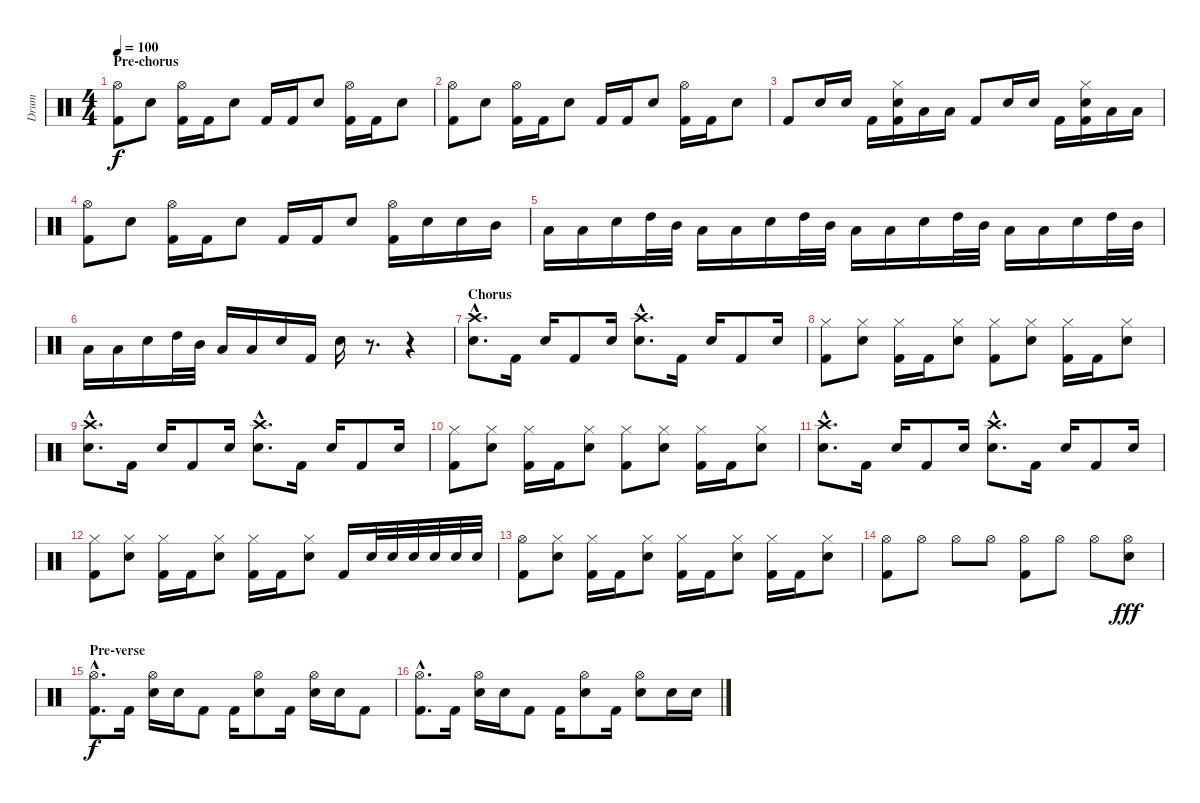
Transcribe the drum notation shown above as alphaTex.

\track ("Drum" "Drum") {instrument percussion}
\staff {score}
\articulation defaults
\ts (4 4)
\section ("" "Pre-chorus")
\tempo 100
\clef neutral
\ks c
("Hi-Hat (open)" "Kick (hit) 2").8{dy f} "Electric Snare (hit)".8 ("Hi-Hat (open)" "Kick (hit) 2").16 "Kick (hit) 2".16 "Electric Snare (hit)".8 "Kick (hit) 2".16 "Kick (hit) 2".16 "Electric Snare (hit)".8 ("Hi-Hat (open)" "Kick (hit) 2").16 "Kick (hit) 2".16 "Electric Snare (hit)".8 |
("Hi-Hat (open)" "Kick (hit) 2").8 "Electric Snare (hit)".8 ("Hi-Hat (open)" "Kick (hit) 2").16 "Kick (hit) 2".16 "Electric Snare (hit)".8 "Kick (hit) 2".16 "Kick (hit) 2".16 "Electric Snare (hit)".8 ("Hi-Hat (open)" "Kick (hit) 2").16 "Kick (hit) 2".16 "Electric Snare (hit)".8 |
"Kick (hit) 2".8 "Electric Snare (hit)".16 "Electric Snare (hit)".16 "Kick (hit) 2".16 ("Hi-Hat (closed)" "Electric Snare (hit)" "Kick (hit) 2").16 "Low Tom (hit)".16 "Low Tom (hit)".16 "Kick (hit) 2".8 "Electric Snare (hit)".16 "Electric Snare (hit)".16 "Kick (hit) 2".16 ("Hi-Hat (closed)" "Electric Snare (hit)" "Kick (hit) 2").16 "Low Tom (hit)".16 "Low Tom (hit)".16 |
("Hi-Hat (open)" "Kick (hit) 2").8 "Electric Snare (hit)".8 ("Hi-Hat (open)" "Kick (hit) 2").16 "Kick (hit) 2".16 "Electric Snare (hit)".8 "Kick (hit) 2".16 "Kick (hit) 2".16 "Electric Snare (hit)".8 ("Hi-Hat (open)" "Kick (hit) 2").16 "Electric Snare (hit)".16 "Electric Snare (hit)".16 "Mid Tom (hit)".16 |
"Low Tom (hit)".16 "Low Tom (hit)".16 "Electric Snare (hit)".16 "High Tom (hit)".32 "Mid Tom (hit)".32 "Low Tom (hit)".16 "Low Tom (hit)".16 "Electric Snare (hit)".16 "High Tom (hit)".32 "Mid Tom (hit)".32 "Low Tom (hit)".16 "Low Tom (hit)".16 "Electric Snare (hit)".16 "High Tom (hit)".32 "Mid Tom (hit)".32 "Low Tom (hit)".16 "Low Tom (hit)".16 "Electric Snare (hit)".16 "High Tom (hit)".32 "Mid Tom (hit)".32 |
"Low Tom (hit)".16 "Low Tom (hit)".16 "Electric Snare (hit)".16 "High Tom (hit)".32 "Mid Tom (hit)".32 "Low Tom (hit)".16 "Low Tom (hit)".16 "Electric Snare (hit)".16 "Kick (hit) 2".16 "Electric Snare (hit)".16 r.8{d} r.4 |
\section ("" "Chorus")
("Crash high (hit)"{hac} "Electric Snare (hit)"{hac}).8{d} "Kick (hit) 2".16 "Electric Snare (hit)".16 "Kick (hit) 2".8 "Electric Snare (hit)".16 ("Crash high (hit)"{hac} "Electric Snare (hit)"{hac}).8{d} "Kick (hit) 2".16 "Electric Snare (hit)".16 "Kick (hit) 2".8 "Electric Snare (hit)".16 |
("Hi-Hat (closed)" "Kick (hit) 2").8 ("Hi-Hat (closed)" "Electric Snare (hit)").8 ("Hi-Hat (closed)" "Kick (hit) 2").16 "Kick (hit) 2".16 ("Hi-Hat (closed)" "Electric Snare (hit)").8 ("Hi-Hat (closed)" "Kick (hit) 2").8 ("Hi-Hat (closed)" "Electric Snare (hit)").8 ("Hi-Hat (closed)" "Kick (hit) 2").16 "Kick (hit) 2".16 ("Hi-Hat (closed)" "Electric Snare (hit)").8 |
("Crash high (hit)"{hac} "Electric Snare (hit)"{hac}).8{d} "Kick (hit) 2".16 "Electric Snare (hit)".16 "Kick (hit) 2".8 "Electric Snare (hit)".16 ("Crash high (hit)"{hac} "Electric Snare (hit)"{hac}).8{d} "Kick (hit) 2".16 "Electric Snare (hit)".16 "Kick (hit) 2".8 "Electric Snare (hit)".16 |
("Hi-Hat (closed)" "Kick (hit) 2").8 ("Hi-Hat (closed)" "Electric Snare (hit)").8 ("Hi-Hat (closed)" "Kick (hit) 2").16 "Kick (hit) 2".16 ("Hi-Hat (closed)" "Electric Snare (hit)").8 ("Hi-Hat (closed)" "Kick (hit) 2").8 ("Hi-Hat (closed)" "Electric Snare (hit)").8 ("Hi-Hat (closed)" "Kick (hit) 2").16 "Kick (hit) 2".16 ("Hi-Hat (closed)" "Electric Snare (hit)").8 |
("Crash high (hit)"{hac} "Electric Snare (hit)"{hac}).8{d} "Kick (hit) 2".16 "Electric Snare (hit)".16 "Kick (hit) 2".8 "Electric Snare (hit)".16 ("Crash high (hit)"{hac} "Electric Snare (hit)"{hac}).8{d} "Kick (hit) 2".16 "Electric Snare (hit)".16 "Kick (hit) 2".8 "Electric Snare (hit)".16 |
("Hi-Hat (closed)" "Kick (hit) 2").8 ("Hi-Hat (closed)" "Electric Snare (hit)").8 ("Hi-Hat (closed)" "Kick (hit) 2").16 "Kick (hit) 2".16 ("Hi-Hat (closed)" "Electric Snare (hit)").8 ("Hi-Hat (closed)" "Kick (hit) 2").16 "Kick (hit) 2".16 ("Hi-Hat (closed)" "Electric Snare (hit)").8 "Kick (hit) 2".16 "Electric Snare (hit)".32 "Electric Snare (hit)".32 "Electric Snare (hit)".32 "Electric Snare (hit)".32 "Electric Snare (hit)".32 "Electric Snare (hit)".32 |
("Hi-Hat (open)" "Kick (hit) 2").8 ("Hi-Hat (closed)" "Electric Snare (hit)").8 ("Hi-Hat (closed)" "Kick (hit) 2").16 "Kick (hit) 2".16 ("Hi-Hat (closed)" "Electric Snare (hit)").8 ("Hi-Hat (closed)" "Kick (hit) 2").16 "Kick (hit) 2".16 ("Hi-Hat (closed)" "Electric Snare (hit)").8 ("Hi-Hat (closed)" "Kick (hit) 2").16 "Kick (hit) 2".16 ("Hi-Hat (closed)" "Electric Snare (hit)").8 |
("Hi-Hat (open)" "Kick (hit) 2").8 "Hi-Hat (open)".8 "Hi-Hat (open)".8 "Hi-Hat (open)".8 ("Hi-Hat (open)" "Kick (hit) 2").8 "Hi-Hat (open)".8 "Hi-Hat (open)".8 ("Hi-Hat (open)" "Electric Snare (hit)").8{dy fff} |
\section ("" "Pre-verse")
("Hi-Hat (open)"{hac} "Kick (hit) 2"{hac}).8{d dy f} "Kick (hit) 2".16 ("Hi-Hat (open)" "Electric Snare (hit)").16 "Electric Snare (hit)".16 "Kick (hit) 2".8 "Kick (hit) 2".16 ("Hi-Hat (open)" "Electric Snare (hit)").8 "Kick (hit) 2".16 ("Hi-Hat (open)" "Electric Snare (hit)").16 "Electric Snare (hit)".16 "Kick (hit) 2".8 |
("Hi-Hat (open)"{hac} "Kick (hit) 2"{hac}).8{d} "Kick (hit) 2".16 ("Hi-Hat (open)" "Electric Snare (hit)").16 "Electric Snare (hit)".16 "Kick (hit) 2".8 "Kick (hit) 2".16 ("Hi-Hat (open)" "Electric Snare (hit)").8 "Kick (hit) 2".16 ("Hi-Hat (open)" "Electric Snare (hit)").8 "Electric Snare (hit)".16 "Electric Snare (hit)".16
